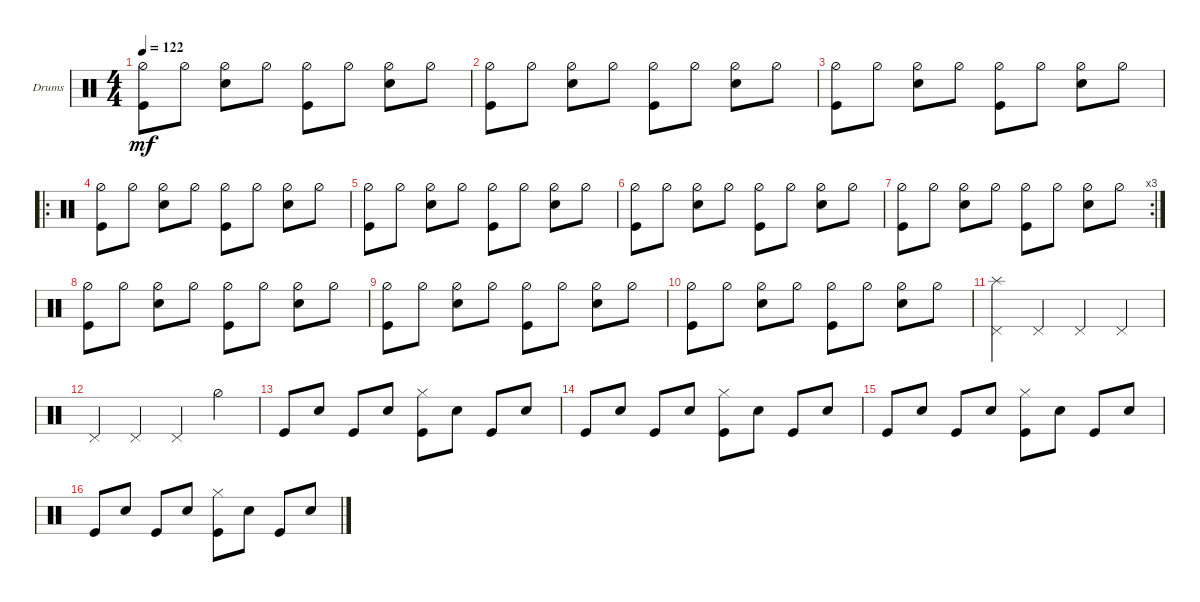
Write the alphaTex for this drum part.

\defaultSystemsLayout 4
\bracketExtendMode groupsimilarinstruments
\firstSystemTrackNameOrientation horizontal
\otherSystemsTrackNameOrientation horizontal
\track ("Drumkit" "Drums") {instrument percussion}
\staff {score}
\articulation defaults
\ts (4 4)
\tempo 122
\clef neutral
\ks c
("Hi-Hat (half)" "Kick (hit)").8{dy mf} "Hi-Hat (half)".8 ("Hi-Hat (half)" "Snare (hit) 2").8 "Hi-Hat (half)".8 ("Hi-Hat (half)" "Kick (hit)").8 "Hi-Hat (half)".8 ("Hi-Hat (half)" "Snare (hit) 2").8 "Hi-Hat (half)".8 |
("Hi-Hat (half)" "Kick (hit)").8 "Hi-Hat (half)".8 ("Hi-Hat (half)" "Snare (hit) 2").8 "Hi-Hat (half)".8 ("Hi-Hat (half)" "Kick (hit)").8 "Hi-Hat (half)".8 ("Hi-Hat (half)" "Snare (hit) 2").8 "Hi-Hat (half)".8 |
("Hi-Hat (half)" "Kick (hit)").8 "Hi-Hat (half)".8 ("Hi-Hat (half)" "Snare (hit) 2").8 "Hi-Hat (half)".8 ("Hi-Hat (half)" "Kick (hit)").8 "Hi-Hat (half)".8 ("Hi-Hat (half)" "Snare (hit) 2").8 "Hi-Hat (half)".8 |
\ro
("Hi-Hat (half)" "Kick (hit)").8 "Hi-Hat (half)".8 ("Hi-Hat (half)" "Snare (hit) 2").8 "Hi-Hat (half)".8 ("Hi-Hat (half)" "Kick (hit)").8 "Hi-Hat (half)".8 ("Hi-Hat (half)" "Snare (hit) 2").8 "Hi-Hat (half)".8 |
("Hi-Hat (half)" "Kick (hit)").8 "Hi-Hat (half)".8 ("Hi-Hat (half)" "Snare (hit) 2").8 "Hi-Hat (half)".8 ("Hi-Hat (half)" "Kick (hit)").8 "Hi-Hat (half)".8 ("Hi-Hat (half)" "Snare (hit) 2").8 "Hi-Hat (half)".8 |
("Hi-Hat (half)" "Kick (hit)").8 "Hi-Hat (half)".8 ("Hi-Hat (half)" "Snare (hit) 2").8 "Hi-Hat (half)".8 ("Hi-Hat (half)" "Kick (hit)").8 "Hi-Hat (half)".8 ("Hi-Hat (half)" "Snare (hit) 2").8 "Hi-Hat (half)".8 |
\rc 3
("Hi-Hat (half)" "Kick (hit)").8 "Hi-Hat (half)".8 ("Hi-Hat (half)" "Snare (hit) 2").8 "Hi-Hat (half)".8 ("Hi-Hat (half)" "Kick (hit)").8 "Hi-Hat (half)".8 ("Hi-Hat (half)" "Snare (hit) 2").8 "Hi-Hat (half)".8 |
("Hi-Hat (half)" "Kick (hit)").8 "Hi-Hat (half)".8 ("Hi-Hat (half)" "Snare (hit) 2").8 "Hi-Hat (half)".8 ("Hi-Hat (half)" "Kick (hit)").8 "Hi-Hat (half)".8 ("Hi-Hat (half)" "Snare (hit) 2").8 "Hi-Hat (half)".8 |
("Hi-Hat (half)" "Kick (hit)").8 "Hi-Hat (half)".8 ("Hi-Hat (half)" "Snare (hit) 2").8 "Hi-Hat (half)".8 ("Hi-Hat (half)" "Kick (hit)").8 "Hi-Hat (half)".8 ("Hi-Hat (half)" "Snare (hit) 2").8 "Hi-Hat (half)".8 |
("Hi-Hat (half)" "Kick (hit)").8 "Hi-Hat (half)".8 ("Hi-Hat (half)" "Snare (hit) 2").8 "Hi-Hat (half)".8 ("Hi-Hat (half)" "Kick (hit)").8 "Hi-Hat (half)".8 ("Hi-Hat (half)" "Snare (hit) 2").8 "Hi-Hat (half)".8 |
("Pedal Hi-Hat (hit)" "Splash (hit)").4 "Pedal Hi-Hat (hit)".4 "Pedal Hi-Hat (hit)".4 "Pedal Hi-Hat (hit)".4 |
"Pedal Hi-Hat (hit)".4 "Pedal Hi-Hat (hit)".4 "Pedal Hi-Hat (hit)".4 "Hi-Hat (half)".4 |
"Kick (hit)".8 "Snare (hit) 2".8 "Kick (hit)".8 "Snare (hit) 2".8 ("Kick (hit)" "Hi-Hat (closed)").8 "Snare (hit) 2".8 "Kick (hit)".8 "Snare (hit) 2".8 |
"Kick (hit)".8 "Snare (hit) 2".8 "Kick (hit)".8 "Snare (hit) 2".8 ("Kick (hit)" "Hi-Hat (closed)").8 "Snare (hit) 2".8 "Kick (hit)".8 "Snare (hit) 2".8 |
"Kick (hit)".8 "Snare (hit) 2".8 "Kick (hit)".8 "Snare (hit) 2".8 ("Kick (hit)" "Hi-Hat (closed)").8 "Snare (hit) 2".8 "Kick (hit)".8 "Snare (hit) 2".8 |
"Kick (hit)".8 "Snare (hit) 2".8 "Kick (hit)".8 "Snare (hit) 2".8 ("Kick (hit)" "Hi-Hat (closed)").8 "Snare (hit) 2".8 "Kick (hit)".8 "Snare (hit) 2".8
